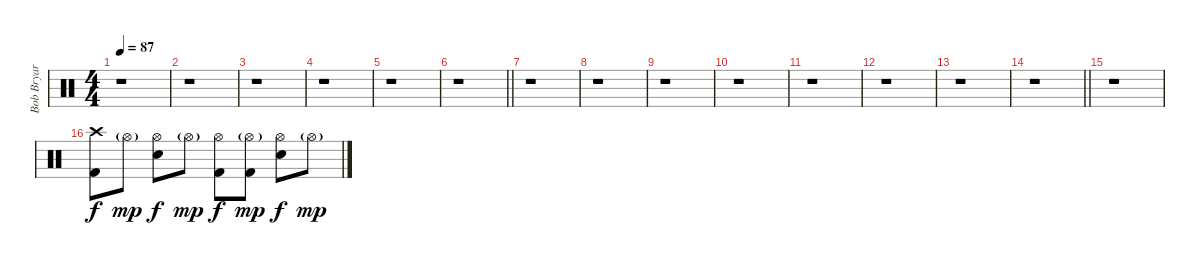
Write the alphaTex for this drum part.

\track ("Bob Bryar [Drums]" "Bob Bryar ") {instrument percussion}
\staff {score}
\articulation defaults
\ts (4 4)
\tempo 87
\clef neutral
\ks c
r.1{dy f} |
r.1 |
r.1 |
r.1 |
r.1 |
\barLineRight lightlight
r.1 |
r.1 |
r.1 |
r.1 |
r.1 |
r.1 |
r.1 |
r.1 |
\barLineRight lightlight
r.1 |
r.1 |
("Crash high (hit)" "Kick (hit) 2").8 "Hi-Hat (open)"{g}.8{dy mp} ("Hi-Hat (open)" "Electric Snare (hit)").8{dy f} "Hi-Hat (open)"{g}.8{dy mp} ("Hi-Hat (open)" "Kick (hit) 2").8{dy f} ("Hi-Hat (open)"{g} "Kick (hit) 2").8{dy mp} ("Hi-Hat (open)" "Electric Snare (hit)").8{dy f} "Hi-Hat (open)"{g}.8{dy mp}
